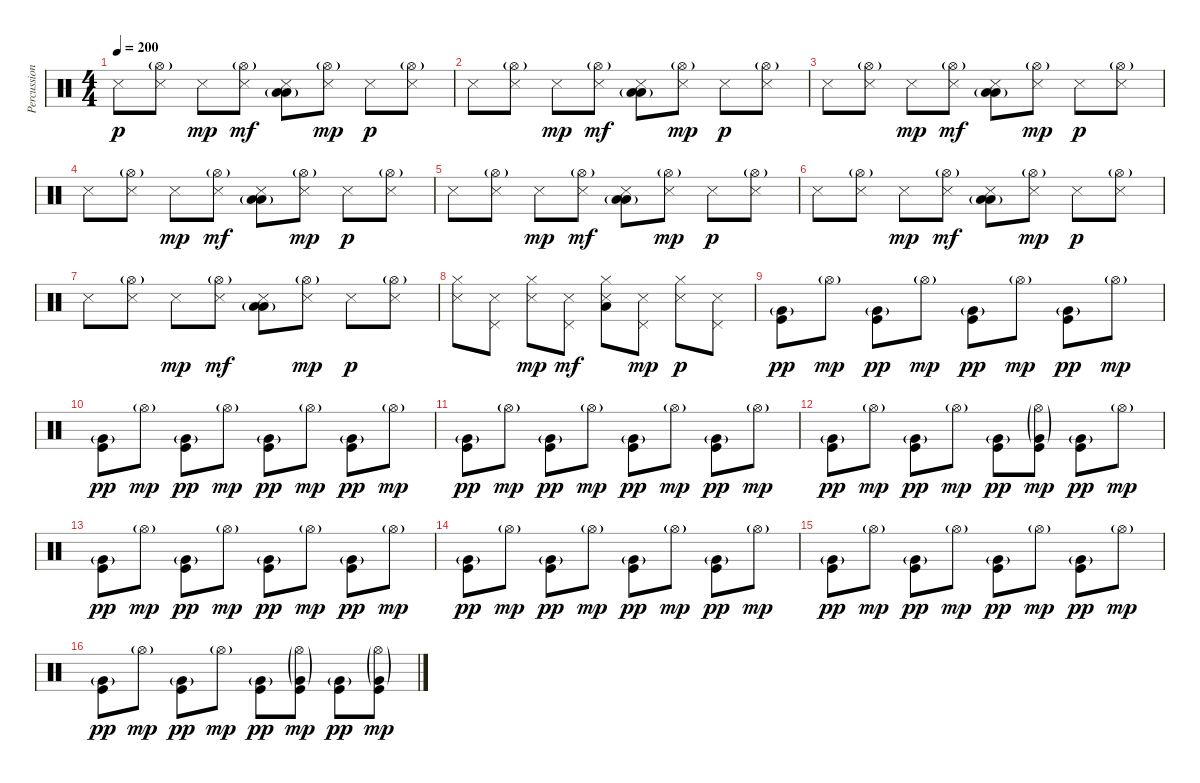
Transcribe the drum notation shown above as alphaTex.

\track ("Percussion" "Percussion") {instrument percussion}
\staff {score}
\articulation defaults
\ts (4 4)
\tempo 200
\clef neutral
\ks c "Snare (side stick) 3".8{dy p}
("Hi-Hat (open)"{g} "Snare (side stick) 3").8 "Snare (side stick) 3".8{dy mp} ("Hi-Hat (open)"{g} "Snare (side stick) 3").8{dy mf} ("Low Floor Tom (hit)"{g} "Low Floor Tom (hit)" "Snare (side stick) 3").8 ("Hi-Hat (open)"{g} "Snare (side stick) 3").8{dy mp} "Snare (side stick) 3".8{dy p} ("Hi-Hat (open)"{g} "Snare (side stick) 3").8 |
"Snare (side stick) 3".8 ("Hi-Hat (open)"{g} "Snare (side stick) 3").8 "Snare (side stick) 3".8{dy mp} ("Hi-Hat (open)"{g} "Snare (side stick) 3").8{dy mf} ("Low Floor Tom (hit)"{g} "Low Floor Tom (hit)" "Snare (side stick) 3").8 ("Hi-Hat (open)"{g} "Snare (side stick) 3").8{dy mp} "Snare (side stick) 3".8{dy p} ("Hi-Hat (open)"{g} "Snare (side stick) 3").8 |
"Snare (side stick) 3".8 ("Hi-Hat (open)"{g} "Snare (side stick) 3").8 "Snare (side stick) 3".8{dy mp} ("Hi-Hat (open)"{g} "Snare (side stick) 3").8{dy mf} ("Low Floor Tom (hit)"{g} "Low Floor Tom (hit)" "Snare (side stick) 3").8 ("Hi-Hat (open)"{g} "Snare (side stick) 3").8{dy mp} "Snare (side stick) 3".8{dy p} ("Hi-Hat (open)"{g} "Snare (side stick) 3").8 |
"Snare (side stick) 3".8 ("Hi-Hat (open)"{g} "Snare (side stick) 3").8 "Snare (side stick) 3".8{dy mp} ("Hi-Hat (open)"{g} "Snare (side stick) 3").8{dy mf} ("Low Floor Tom (hit)"{g} "Low Floor Tom (hit)" "Snare (side stick) 3").8 ("Hi-Hat (open)"{g} "Snare (side stick) 3").8{dy mp} "Snare (side stick) 3".8{dy p} ("Hi-Hat (open)"{g} "Snare (side stick) 3").8 |
"Snare (side stick) 3".8 ("Hi-Hat (open)"{g} "Snare (side stick) 3").8 "Snare (side stick) 3".8{dy mp} ("Hi-Hat (open)"{g} "Snare (side stick) 3").8{dy mf} ("Low Floor Tom (hit)"{g} "Low Floor Tom (hit)" "Snare (side stick) 3").8 ("Hi-Hat (open)"{g} "Snare (side stick) 3").8{dy mp} "Snare (side stick) 3".8{dy p} ("Hi-Hat (open)"{g} "Snare (side stick) 3").8 |
"Snare (side stick) 3".8 ("Hi-Hat (open)"{g} "Snare (side stick) 3").8 "Snare (side stick) 3".8{dy mp} ("Hi-Hat (open)"{g} "Snare (side stick) 3").8{dy mf} ("Low Floor Tom (hit)"{g} "Low Floor Tom (hit)" "Snare (side stick) 3").8 ("Hi-Hat (open)"{g} "Snare (side stick) 3").8{dy mp} "Snare (side stick) 3".8{dy p} ("Hi-Hat (open)"{g} "Snare (side stick) 3").8 |
"Snare (side stick) 3".8 ("Hi-Hat (open)"{g} "Snare (side stick) 3").8 "Snare (side stick) 3".8{dy mp} ("Hi-Hat (open)"{g} "Snare (side stick) 3").8{dy mf} ("Low Floor Tom (hit)"{g} "Low Floor Tom (hit)" "Snare (side stick) 3").8 ("Hi-Hat (open)"{g} "Snare (side stick) 3").8{dy mp} "Snare (side stick) 3".8{dy p} ("Hi-Hat (open)"{g} "Snare (side stick) 3").8 |
("Hi-Hat (closed)" "Snare (side stick) 3").8 ("Pedal Hi-Hat (hit)" "Snare (side stick) 3").8 ("Hi-Hat (closed)" "Snare (side stick) 3").8{dy mp} ("Pedal Hi-Hat (hit)" "Snare (side stick) 3").8{dy mf} ("Hi-Hat (closed)" "Low Floor Tom (hit)" "Snare (side stick) 3").8 ("Pedal Hi-Hat (hit)" "Snare (side stick) 3").8{dy mp} ("Hi-Hat (closed)" "Snare (side stick) 3").8{dy p} ("Pedal Hi-Hat (hit)" "Snare (side stick) 3").8 |
("Very Low Tom (hit)"{g} "Kick (hit)").8{dy pp} "Hi-Hat (open)"{g}.8{dy mp} ("Very Low Tom (hit)"{g} "Kick (hit)").8{dy pp} "Hi-Hat (open)"{g}.8{dy mp} ("Very Low Tom (hit)"{g} "Kick (hit)").8{dy pp} "Hi-Hat (open)"{g}.8{dy mp} ("Very Low Tom (hit)"{g} "Kick (hit)").8{dy pp} "Hi-Hat (open)"{g}.8{dy mp} |
("Very Low Tom (hit)"{g} "Kick (hit)").8{dy pp} "Hi-Hat (open)"{g}.8{dy mp} ("Very Low Tom (hit)"{g} "Kick (hit)").8{dy pp} "Hi-Hat (open)"{g}.8{dy mp} ("Very Low Tom (hit)"{g} "Kick (hit)").8{dy pp} "Hi-Hat (open)"{g}.8{dy mp} ("Very Low Tom (hit)"{g} "Kick (hit)").8{dy pp} "Hi-Hat (open)"{g}.8{dy mp} |
("Very Low Tom (hit)"{g} "Kick (hit)").8{dy pp} "Hi-Hat (open)"{g}.8{dy mp} ("Very Low Tom (hit)"{g} "Kick (hit)").8{dy pp} "Hi-Hat (open)"{g}.8{dy mp} ("Very Low Tom (hit)"{g} "Kick (hit)").8{dy pp} "Hi-Hat (open)"{g}.8{dy mp} ("Very Low Tom (hit)"{g} "Kick (hit)").8{dy pp} "Hi-Hat (open)"{g}.8{dy mp} |
("Very Low Tom (hit)"{g} "Kick (hit)").8{dy pp} "Hi-Hat (open)"{g}.8{dy mp} ("Very Low Tom (hit)"{g} "Kick (hit)").8{dy pp} "Hi-Hat (open)"{g}.8{dy mp} ("Very Low Tom (hit)"{g} "Kick (hit)").8{dy pp} ("Very Low Tom (hit)"{g} "Hi-Hat (open)"{g} "Kick (hit)").8{dy mp} ("Very Low Tom (hit)"{g} "Kick (hit)").8{dy pp} "Hi-Hat (open)"{g}.8{dy mp} |
("Very Low Tom (hit)"{g} "Kick (hit)").8{dy pp} "Hi-Hat (open)"{g}.8{dy mp} ("Very Low Tom (hit)"{g} "Kick (hit)").8{dy pp} "Hi-Hat (open)"{g}.8{dy mp} ("Very Low Tom (hit)"{g} "Kick (hit)").8{dy pp} "Hi-Hat (open)"{g}.8{dy mp} ("Very Low Tom (hit)"{g} "Kick (hit)").8{dy pp} "Hi-Hat (open)"{g}.8{dy mp} |
("Very Low Tom (hit)"{g} "Kick (hit)").8{dy pp} "Hi-Hat (open)"{g}.8{dy mp} ("Very Low Tom (hit)"{g} "Kick (hit)").8{dy pp} "Hi-Hat (open)"{g}.8{dy mp} ("Very Low Tom (hit)"{g} "Kick (hit)").8{dy pp} "Hi-Hat (open)"{g}.8{dy mp} ("Very Low Tom (hit)"{g} "Kick (hit)").8{dy pp} "Hi-Hat (open)"{g}.8{dy mp} |
("Very Low Tom (hit)"{g} "Kick (hit)").8{dy pp} "Hi-Hat (open)"{g}.8{dy mp} ("Very Low Tom (hit)"{g} "Kick (hit)").8{dy pp} "Hi-Hat (open)"{g}.8{dy mp} ("Very Low Tom (hit)"{g} "Kick (hit)").8{dy pp} "Hi-Hat (open)"{g}.8{dy mp} ("Very Low Tom (hit)"{g} "Kick (hit)").8{dy pp} "Hi-Hat (open)"{g}.8{dy mp} |
("Very Low Tom (hit)"{g} "Kick (hit)").8{dy pp} "Hi-Hat (open)"{g}.8{dy mp} ("Very Low Tom (hit)"{g} "Kick (hit)").8{dy pp} "Hi-Hat (open)"{g}.8{dy mp} ("Very Low Tom (hit)"{g} "Kick (hit)").8{dy pp} ("Very Low Tom (hit)"{g} "Hi-Hat (open)"{g} "Kick (hit)").8{dy mp} ("Very Low Tom (hit)"{g} "Kick (hit)").8{dy pp} ("Very Low Tom (hit)"{g} "Hi-Hat (open)"{g} "Kick (hit)").8{dy mp}
